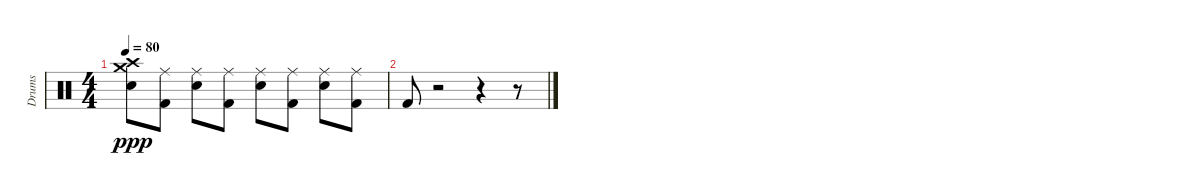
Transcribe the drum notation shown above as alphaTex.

\track ("Drums" "Drums") {instrument percussion}
\staff {score}
\articulation defaults
\ts (4 4)
\tempo 80
\clef neutral
\ks c
("Snare (hit) 2" "Crash high (hit)" "Crash medium (hit)").8{dy ppp} ("Ride (middle)" "Kick (hit) 2").8 ("Ride (middle)" "Snare (hit) 2").8 ("Ride (middle)" "Kick (hit) 2").8 ("Ride (middle)" "Snare (hit) 2").8 ("Ride (middle)" "Kick (hit) 2").8 ("Ride (middle)" "Snare (hit) 2").8 ("Ride (middle)" "Kick (hit) 2").8 |
"Kick (hit) 2".8 r.2 r.4 r.8
